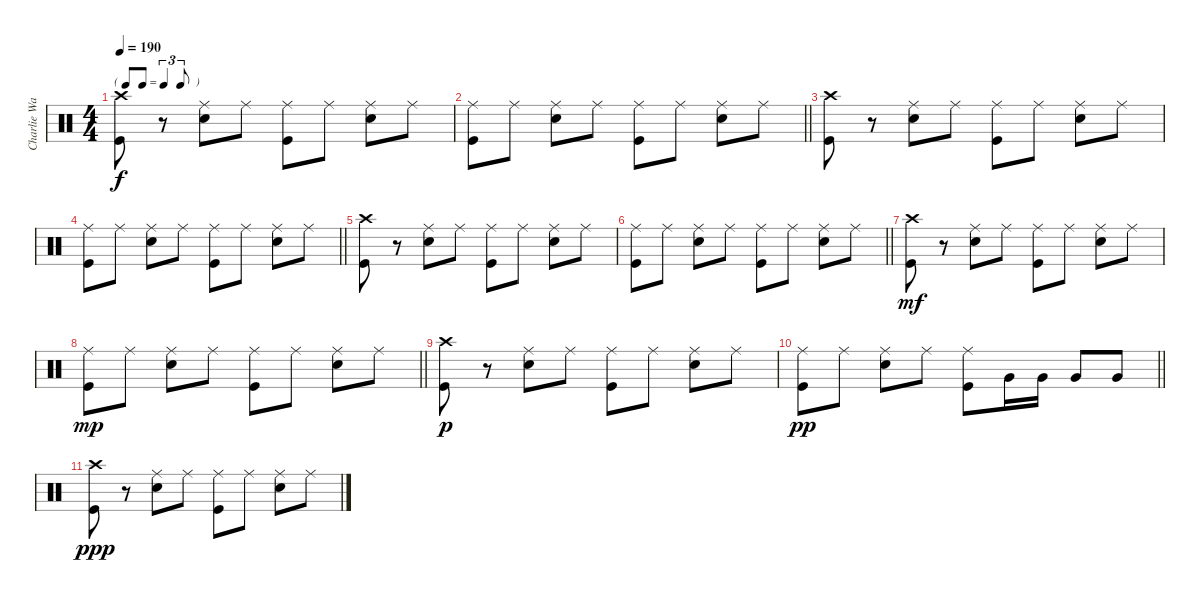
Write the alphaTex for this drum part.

\track ("Charlie Watts" "Charlie Wa") {instrument percussion}
\staff {score}
\articulation defaults
\ts (4 4)
\tf triplet8th
\tempo 190
\clef neutral
\ks c
("Crash high (hit)" "Kick (hit)").8{dy f} r.8 ("Ride (middle)" "Snare (hit) 2").8 "Ride (middle)".8 ("Ride (middle)" "Kick (hit)").8 "Ride (middle)".8 ("Ride (middle)" "Snare (hit) 2").8 "Ride (middle)".8 |
\barLineRight lightlight
("Ride (middle)" "Kick (hit)").8 "Ride (middle)".8 ("Ride (middle)" "Snare (hit) 2").8 "Ride (middle)".8 ("Ride (middle)" "Kick (hit)").8 "Ride (middle)".8 ("Ride (middle)" "Snare (hit) 2").8 "Ride (middle)".8 |
("Crash high (hit)" "Kick (hit)").8 r.8 ("Ride (middle)" "Snare (hit) 2").8 "Ride (middle)".8 ("Ride (middle)" "Kick (hit)").8 "Ride (middle)".8 ("Ride (middle)" "Snare (hit) 2").8 "Ride (middle)".8 |
\barLineRight lightlight
("Ride (middle)" "Kick (hit)").8 "Ride (middle)".8 ("Ride (middle)" "Snare (hit) 2").8 "Ride (middle)".8 ("Ride (middle)" "Kick (hit)").8 "Ride (middle)".8 ("Ride (middle)" "Snare (hit) 2").8 "Ride (middle)".8 |
("Crash high (hit)" "Kick (hit)").8 r.8 ("Ride (middle)" "Snare (hit) 2").8 "Ride (middle)".8 ("Ride (middle)" "Kick (hit)").8 "Ride (middle)".8 ("Ride (middle)" "Snare (hit) 2").8 "Ride (middle)".8 |
\barLineRight lightlight
("Ride (middle)" "Kick (hit)").8 "Ride (middle)".8 ("Ride (middle)" "Snare (hit) 2").8 "Ride (middle)".8 ("Ride (middle)" "Kick (hit)").8 "Ride (middle)".8 ("Ride (middle)" "Snare (hit) 2").8 "Ride (middle)".8 |
("Crash high (hit)" "Kick (hit)").8{dy mf} r.8 ("Ride (middle)" "Snare (hit) 2").8 "Ride (middle)".8 ("Ride (middle)" "Kick (hit)").8 "Ride (middle)".8 ("Ride (middle)" "Snare (hit) 2").8 "Ride (middle)".8 |
\barLineRight lightlight
("Ride (middle)" "Kick (hit)").8{dy mp} "Ride (middle)".8 ("Ride (middle)" "Snare (hit) 2").8 "Ride (middle)".8 ("Ride (middle)" "Kick (hit)").8 "Ride (middle)".8 ("Ride (middle)" "Snare (hit) 2").8 "Ride (middle)".8 |
("Crash high (hit)" "Kick (hit)").8{dy p} r.8 ("Ride (middle)" "Snare (hit) 2").8 "Ride (middle)".8 ("Ride (middle)" "Kick (hit)").8 "Ride (middle)".8 ("Ride (middle)" "Snare (hit) 2").8 "Ride (middle)".8 |
\barLineRight lightlight
("Ride (middle)" "Kick (hit)").8{dy pp} "Ride (middle)".8 ("Ride (middle)" "Snare (hit) 2").8 "Ride (middle)".8 ("Ride (middle)" "Kick (hit)").8 "Very Low Tom (hit)".16 "Very Low Tom (hit)".16 "Very Low Tom (hit)".8 "Very Low Tom (hit)".8 |
("Crash high (hit)" "Kick (hit)").8{dy ppp} r.8 ("Ride (middle)" "Snare (hit) 2").8 "Ride (middle)".8 ("Ride (middle)" "Kick (hit)").8 "Ride (middle)".8 ("Ride (middle)" "Snare (hit) 2").8 "Ride (middle)".8
